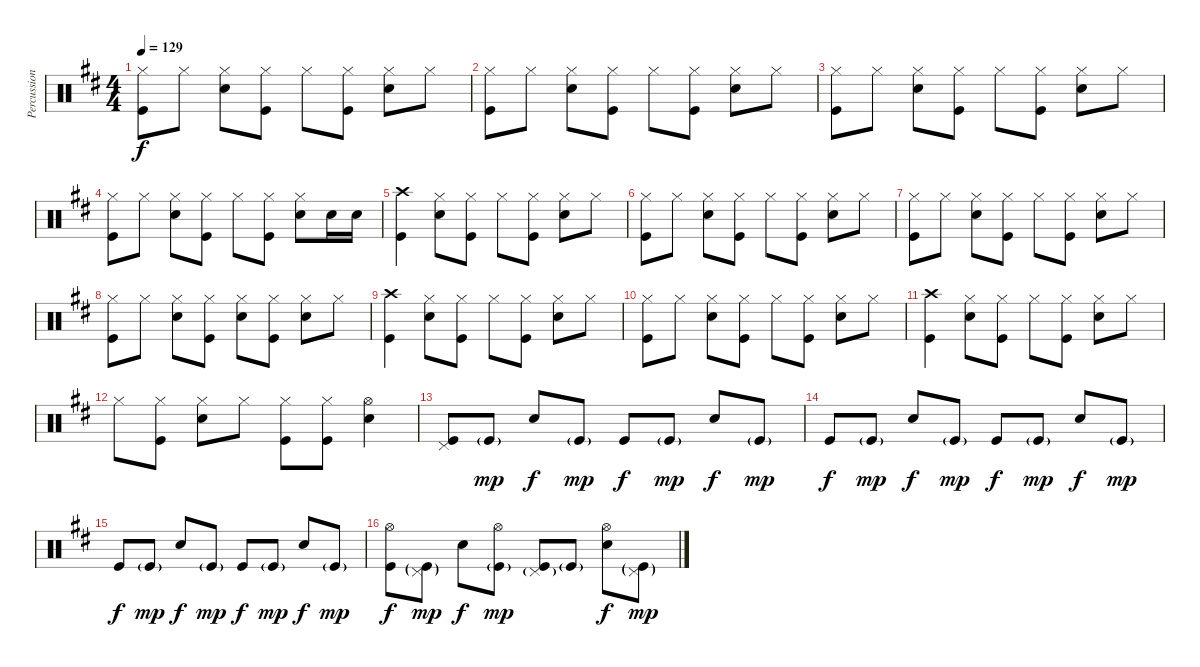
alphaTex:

\track ("Percussion" "Percussion") {instrument percussion}
\staff {score}
\articulation defaults
\ts (4 4)
\tempo 129
\clef neutral
\ks bminor
("Hi-Hat (closed)" "Kick (hit)").8{dy f} "Hi-Hat (closed)".8 ("Hi-Hat (closed)" "Snare (hit) 2").8 ("Hi-Hat (closed)" "Kick (hit)").8 "Hi-Hat (closed)".8 ("Hi-Hat (closed)" "Kick (hit)").8 ("Hi-Hat (closed)" "Snare (hit) 2").8 "Hi-Hat (closed)".8 |
("Hi-Hat (closed)" "Kick (hit)").8 "Hi-Hat (closed)".8 ("Hi-Hat (closed)" "Snare (hit) 2").8 ("Hi-Hat (closed)" "Kick (hit)").8 "Hi-Hat (closed)".8 ("Hi-Hat (closed)" "Kick (hit)").8 ("Hi-Hat (closed)" "Snare (hit) 2").8 "Hi-Hat (closed)".8 |
("Hi-Hat (closed)" "Kick (hit)").8 "Hi-Hat (closed)".8 ("Hi-Hat (closed)" "Snare (hit) 2").8 ("Hi-Hat (closed)" "Kick (hit)").8 "Hi-Hat (closed)".8 ("Hi-Hat (closed)" "Kick (hit)").8 ("Hi-Hat (closed)" "Snare (hit) 2").8 "Hi-Hat (closed)".8 |
("Hi-Hat (closed)" "Kick (hit)").8 "Hi-Hat (closed)".8 ("Hi-Hat (closed)" "Snare (hit) 2").8 ("Hi-Hat (closed)" "Kick (hit)").8 "Hi-Hat (closed)".8 ("Hi-Hat (closed)" "Kick (hit)").8 ("Hi-Hat (closed)" "Snare (hit) 2").8 "Snare (hit) 2".16 "Snare (hit) 2".16 |
("Crash high (hit)" "Kick (hit)").4 ("Hi-Hat (closed)" "Snare (hit) 2").8 ("Hi-Hat (closed)" "Kick (hit)").8 "Hi-Hat (closed)".8 ("Hi-Hat (closed)" "Kick (hit)").8 ("Hi-Hat (closed)" "Snare (hit) 2").8 "Hi-Hat (closed)".8 |
("Hi-Hat (closed)" "Kick (hit)").8 "Hi-Hat (closed)".8 ("Hi-Hat (closed)" "Snare (hit) 2").8 ("Hi-Hat (closed)" "Kick (hit)").8 "Hi-Hat (closed)".8 ("Hi-Hat (closed)" "Kick (hit)").8 ("Hi-Hat (closed)" "Snare (hit) 2").8 "Hi-Hat (closed)".8 |
("Hi-Hat (closed)" "Kick (hit)").8 "Hi-Hat (closed)".8 ("Hi-Hat (closed)" "Snare (hit) 2").8 ("Hi-Hat (closed)" "Kick (hit)").8 "Hi-Hat (closed)".8 ("Hi-Hat (closed)" "Kick (hit)").8 ("Hi-Hat (closed)" "Snare (hit) 2").8 "Hi-Hat (closed)".8 |
("Hi-Hat (closed)" "Kick (hit)").8 "Hi-Hat (closed)".8 ("Hi-Hat (closed)" "Snare (hit) 2").8 ("Hi-Hat (closed)" "Kick (hit)").8 ("Hi-Hat (closed)" "Snare (hit) 2").8 ("Hi-Hat (closed)" "Kick (hit)").8 ("Hi-Hat (closed)" "Snare (hit) 2").8 "Hi-Hat (closed)".8 |
("Crash high (hit)" "Kick (hit)").4 ("Hi-Hat (closed)" "Snare (hit) 2").8 ("Hi-Hat (closed)" "Kick (hit)").8 "Hi-Hat (closed)".8 ("Hi-Hat (closed)" "Kick (hit)").8 ("Hi-Hat (closed)" "Snare (hit) 2").8 "Hi-Hat (closed)".8 |
("Hi-Hat (closed)" "Kick (hit)").8 "Hi-Hat (closed)".8 ("Hi-Hat (closed)" "Snare (hit) 2").8 ("Hi-Hat (closed)" "Kick (hit)").8 "Hi-Hat (closed)".8 ("Hi-Hat (closed)" "Kick (hit)").8 ("Hi-Hat (closed)" "Snare (hit) 2").8 "Hi-Hat (closed)".8 |
("Crash high (hit)" "Kick (hit)").4 ("Hi-Hat (closed)" "Snare (hit) 2").8 ("Hi-Hat (closed)" "Kick (hit)").8 "Hi-Hat (closed)".8 ("Hi-Hat (closed)" "Kick (hit)").8 ("Hi-Hat (closed)" "Snare (hit) 2").8 "Hi-Hat (closed)".8 |
"Hi-Hat (closed)".8 ("Hi-Hat (closed)" "Kick (hit)").8 ("Hi-Hat (closed)" "Snare (hit) 2").8 "Hi-Hat (closed)".8 ("Hi-Hat (closed)" "Kick (hit)").8 ("Hi-Hat (closed)" "Kick (hit)").8 ("Hi-Hat (open)" "Snare (hit) 2").4 |
("Pedal Hi-Hat (hit)" "Kick (hit)").8 "Kick (hit)"{g}.8{dy mp} "Snare (hit) 2".8{dy f} "Kick (hit)"{g}.8{dy mp} "Kick (hit)".8{dy f} "Kick (hit)"{g}.8{dy mp} "Snare (hit) 2".8{dy f} "Kick (hit)"{g}.8{dy mp} |
"Kick (hit)".8{dy f} "Kick (hit)"{g}.8{dy mp} "Snare (hit) 2".8{dy f} "Kick (hit)"{g}.8{dy mp} "Kick (hit)".8{dy f} "Kick (hit)"{g}.8{dy mp} "Snare (hit) 2".8{dy f} "Kick (hit)"{g}.8{dy mp} |
"Kick (hit)".8{dy f} "Kick (hit)"{g}.8{dy mp} "Snare (hit) 2".8{dy f} "Kick (hit)"{g}.8{dy mp} "Kick (hit)".8{dy f} "Kick (hit)"{g}.8{dy mp} "Snare (hit) 2".8{dy f} "Kick (hit)"{g}.8{dy mp} |
("Hi-Hat (open)" "Kick (hit)").8{dy f} ("Pedal Hi-Hat (hit)"{g} "Kick (hit)"{g}).8{dy mp} "Snare (hit) 2".8{dy f} ("Hi-Hat (open)" "Kick (hit)"{g}).8{dy mp} ("Pedal Hi-Hat (hit)"{g} "Kick (hit)").8 "Kick (hit)"{g}.8 ("Hi-Hat (open)" "Snare (hit) 2").8{dy f} ("Pedal Hi-Hat (hit)"{g} "Kick (hit)"{g}).8{dy mp}
